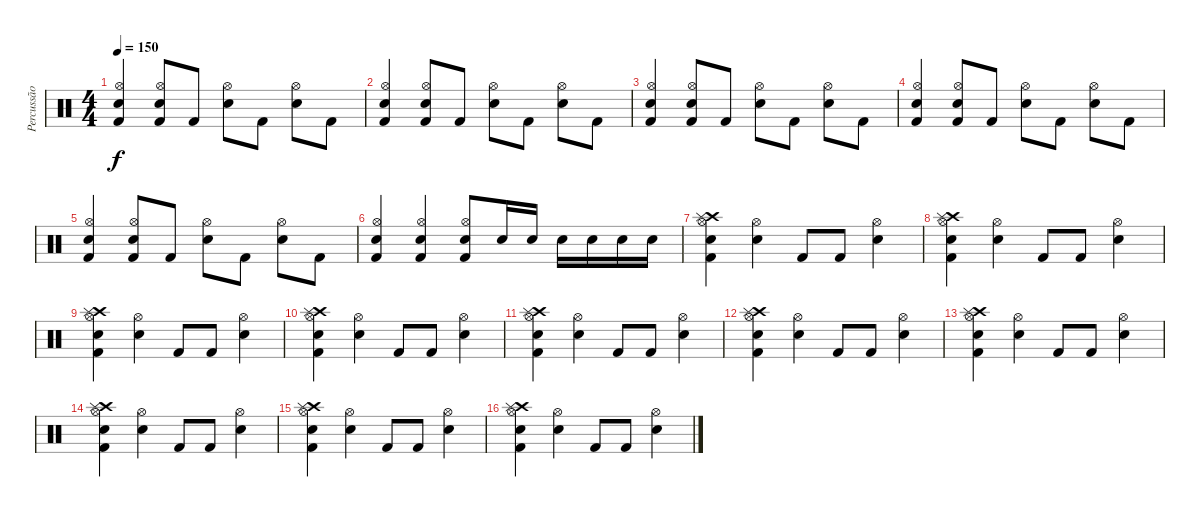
\track ("Percussão" "Percussão") {instrument percussion}
\staff {score}
\articulation defaults
\ts (4 4)
\tempo 150
\clef neutral
\ks c
("Kick (hit) 2" "Hi-Hat (open)" "Electric Snare (hit)").4{dy f} ("Kick (hit) 2" "Hi-Hat (open)" "Electric Snare (hit)").8 "Kick (hit) 2".8 ("Hi-Hat (open)" "Electric Snare (hit)").8 "Kick (hit) 2".8 ("Hi-Hat (open)" "Electric Snare (hit)").8 "Kick (hit) 2".8 |
("Kick (hit) 2" "Hi-Hat (open)" "Electric Snare (hit)").4 ("Kick (hit) 2" "Hi-Hat (open)" "Electric Snare (hit)").8 "Kick (hit) 2".8 ("Hi-Hat (open)" "Electric Snare (hit)").8 "Kick (hit) 2".8 ("Hi-Hat (open)" "Electric Snare (hit)").8 "Kick (hit) 2".8 |
("Kick (hit) 2" "Hi-Hat (open)" "Electric Snare (hit)").4 ("Kick (hit) 2" "Hi-Hat (open)" "Electric Snare (hit)").8 "Kick (hit) 2".8 ("Hi-Hat (open)" "Electric Snare (hit)").8 "Kick (hit) 2".8 ("Hi-Hat (open)" "Electric Snare (hit)").8 "Kick (hit) 2".8 |
("Kick (hit) 2" "Hi-Hat (open)" "Electric Snare (hit)").4 ("Kick (hit) 2" "Hi-Hat (open)" "Electric Snare (hit)").8 "Kick (hit) 2".8 ("Hi-Hat (open)" "Electric Snare (hit)").8 "Kick (hit) 2".8 ("Hi-Hat (open)" "Electric Snare (hit)").8 "Kick (hit) 2".8 |
("Kick (hit) 2" "Hi-Hat (open)" "Electric Snare (hit)").4 ("Kick (hit) 2" "Hi-Hat (open)" "Electric Snare (hit)").8 "Kick (hit) 2".8 ("Hi-Hat (open)" "Electric Snare (hit)").8 "Kick (hit) 2".8 ("Hi-Hat (open)" "Electric Snare (hit)").8 "Kick (hit) 2".8 |
("Kick (hit) 2" "Hi-Hat (open)" "Electric Snare (hit)").4 ("Kick (hit) 2" "Hi-Hat (open)" "Electric Snare (hit)").4 ("Kick (hit) 2" "Hi-Hat (open)" "Electric Snare (hit)").8 "Electric Snare (hit)".16 "Electric Snare (hit)".16 "Electric Snare (hit)".16 "Electric Snare (hit)".16 "Electric Snare (hit)".16 "Electric Snare (hit)".16 |
("Kick (hit) 2" "Crash high (hit)" "Splash (hit)" "Hi-Hat (open)" "Electric Snare (hit)").4 ("Hi-Hat (open)" "Electric Snare (hit)").4 "Kick (hit) 2".8 "Kick (hit) 2".8 ("Hi-Hat (open)" "Electric Snare (hit)").4 |
("Kick (hit) 2" "Crash high (hit)" "Splash (hit)" "Hi-Hat (open)" "Electric Snare (hit)").4 ("Hi-Hat (open)" "Electric Snare (hit)").4 "Kick (hit) 2".8 "Kick (hit) 2".8 ("Hi-Hat (open)" "Electric Snare (hit)").4 |
("Kick (hit) 2" "Crash high (hit)" "Splash (hit)" "Hi-Hat (open)" "Electric Snare (hit)").4 ("Hi-Hat (open)" "Electric Snare (hit)").4 "Kick (hit) 2".8 "Kick (hit) 2".8 ("Hi-Hat (open)" "Electric Snare (hit)").4 |
("Kick (hit) 2" "Crash high (hit)" "Splash (hit)" "Hi-Hat (open)" "Electric Snare (hit)").4 ("Hi-Hat (open)" "Electric Snare (hit)").4 "Kick (hit) 2".8 "Kick (hit) 2".8 ("Hi-Hat (open)" "Electric Snare (hit)").4 |
("Kick (hit) 2" "Crash high (hit)" "Splash (hit)" "Hi-Hat (open)" "Electric Snare (hit)").4 ("Hi-Hat (open)" "Electric Snare (hit)").4 "Kick (hit) 2".8 "Kick (hit) 2".8 ("Hi-Hat (open)" "Electric Snare (hit)").4 |
("Kick (hit) 2" "Crash high (hit)" "Splash (hit)" "Hi-Hat (open)" "Electric Snare (hit)").4 ("Hi-Hat (open)" "Electric Snare (hit)").4 "Kick (hit) 2".8 "Kick (hit) 2".8 ("Hi-Hat (open)" "Electric Snare (hit)").4 |
("Kick (hit) 2" "Crash high (hit)" "Splash (hit)" "Hi-Hat (open)" "Electric Snare (hit)").4 ("Hi-Hat (open)" "Electric Snare (hit)").4 "Kick (hit) 2".8 "Kick (hit) 2".8 ("Hi-Hat (open)" "Electric Snare (hit)").4 |
("Kick (hit) 2" "Crash high (hit)" "Splash (hit)" "Hi-Hat (open)" "Electric Snare (hit)").4 ("Hi-Hat (open)" "Electric Snare (hit)").4 "Kick (hit) 2".8 "Kick (hit) 2".8 ("Hi-Hat (open)" "Electric Snare (hit)").4 |
("Kick (hit) 2" "Crash high (hit)" "Splash (hit)" "Hi-Hat (open)" "Electric Snare (hit)").4 ("Hi-Hat (open)" "Electric Snare (hit)").4 "Kick (hit) 2".8 "Kick (hit) 2".8 ("Hi-Hat (open)" "Electric Snare (hit)").4 |
("Kick (hit) 2" "Crash high (hit)" "Splash (hit)" "Hi-Hat (open)" "Electric Snare (hit)").4 ("Hi-Hat (open)" "Electric Snare (hit)").4 "Kick (hit) 2".8 "Kick (hit) 2".8 ("Hi-Hat (open)" "Electric Snare (hit)").4
